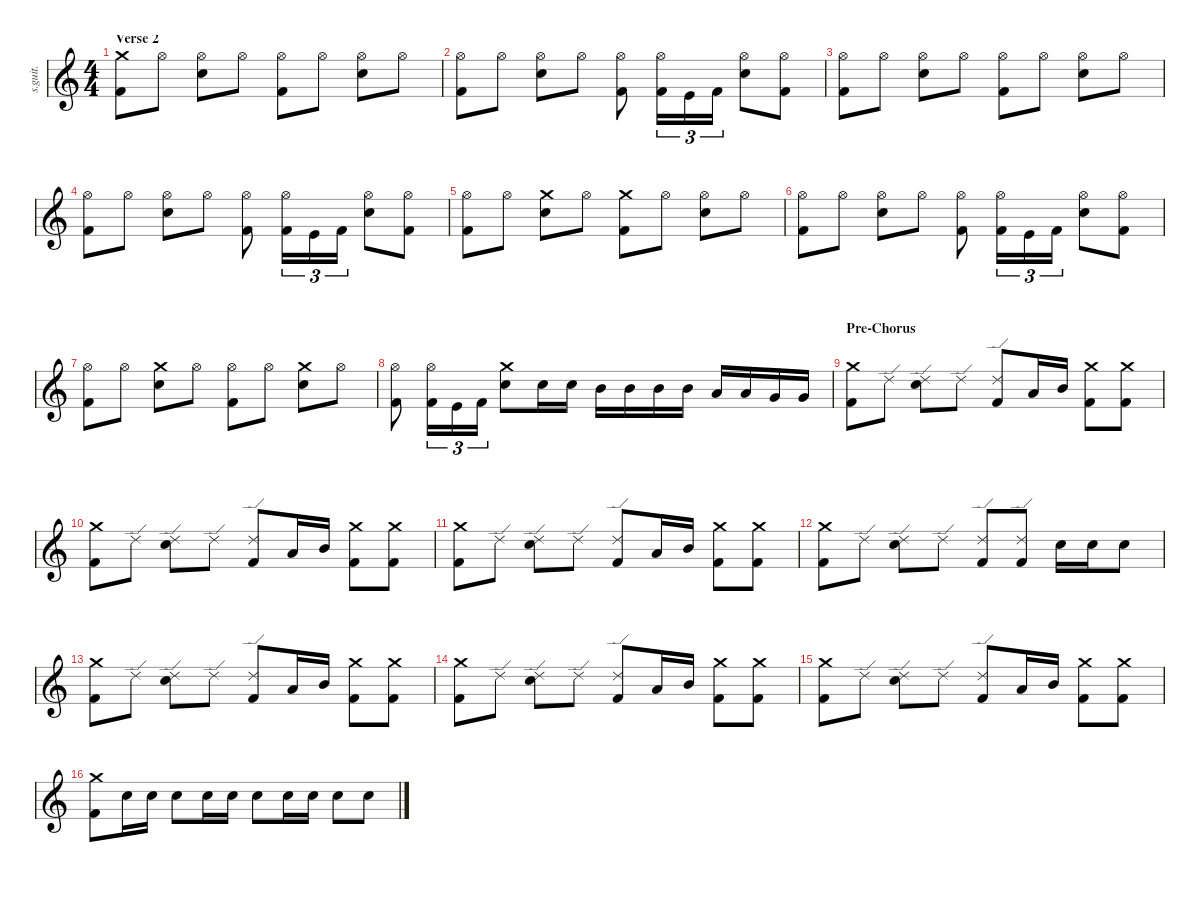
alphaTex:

\defaultSystemsLayout 4
\hideDynamics
\bracketExtendMode nobrackets
\track ("Lars Ulrich - Drums" "s.guit.") {instrument percussion}
\staff {score}
\articulation defaults
\ts (4 4)
\section ("" "Verse 2")
\tempo (140 hide)
\clef g2
\ks c
("Crash medium (hit)" "Kick (hit) 2").8{lyrics (0 "") lyrics (1 "") lyrics (2 "") lyrics (3 "") lyrics (4 "") dy f} "Hi-Hat (open)".8{lyrics (0 "") lyrics (1 "") lyrics (2 "") lyrics (3 "") lyrics (4 "")} ("Hi-Hat (open)" "Snare (hit) 2").8{lyrics (0 "") lyrics (1 "") lyrics (2 "") lyrics (3 "") lyrics (4 "")} "Hi-Hat (open)".8{lyrics (0 "") lyrics (1 "") lyrics (2 "") lyrics (3 "") lyrics (4 "")} ("Hi-Hat (open)" "Kick (hit) 2").8{lyrics (0 "") lyrics (1 "") lyrics (2 "") lyrics (3 "") lyrics (4 "")} "Hi-Hat (open)".8{lyrics (0 "") lyrics (1 "") lyrics (2 "") lyrics (3 "") lyrics (4 "")} ("Hi-Hat (open)" "Snare (hit) 2").8{lyrics (0 "") lyrics (1 "") lyrics (2 "") lyrics (3 "") lyrics (4 "")} "Hi-Hat (open)".8{lyrics (0 "") lyrics (1 "") lyrics (2 "") lyrics (3 "") lyrics (4 "")} |
("Hi-Hat (open)" "Kick (hit) 2").8{lyrics (0 "") lyrics (1 "") lyrics (2 "") lyrics (3 "") lyrics (4 "")} "Hi-Hat (open)".8{lyrics (0 "") lyrics (1 "") lyrics (2 "") lyrics (3 "") lyrics (4 "")} ("Hi-Hat (open)" "Snare (hit) 2").8{lyrics (0 "") lyrics (1 "") lyrics (2 "") lyrics (3 "") lyrics (4 "")} "Hi-Hat (open)".8{lyrics (0 "") lyrics (1 "") lyrics (2 "") lyrics (3 "") lyrics (4 "")} ("Hi-Hat (open)" "Kick (hit) 2").8{lyrics (0 "") lyrics (1 "") lyrics (2 "") lyrics (3 "") lyrics (4 "")} ("Hi-Hat (open)" "Kick (hit) 2").16{tu (3 2) lyrics (0 "") lyrics (1 "") lyrics (2 "") lyrics (3 "") lyrics (4 "")} "Kick (hit)".16{tu (3 2) lyrics (0 "") lyrics (1 "") lyrics (2 "") lyrics (3 "") lyrics (4 "")} "Kick (hit) 2".16{tu (3 2) lyrics (0 "") lyrics (1 "") lyrics (2 "") lyrics (3 "") lyrics (4 "")} ("Hi-Hat (open)" "Snare (hit) 2").8{lyrics (0 "") lyrics (1 "") lyrics (2 "") lyrics (3 "") lyrics (4 "")} ("Hi-Hat (open)" "Kick (hit) 2").8{lyrics (0 "") lyrics (1 "") lyrics (2 "") lyrics (3 "") lyrics (4 "")} |
("Hi-Hat (open)" "Kick (hit) 2").8{lyrics (0 "") lyrics (1 "") lyrics (2 "") lyrics (3 "") lyrics (4 "")} "Hi-Hat (open)".8{lyrics (0 "") lyrics (1 "") lyrics (2 "") lyrics (3 "") lyrics (4 "")} ("Hi-Hat (open)" "Snare (hit) 2").8{lyrics (0 "") lyrics (1 "") lyrics (2 "") lyrics (3 "") lyrics (4 "")} "Hi-Hat (open)".8{lyrics (0 "") lyrics (1 "") lyrics (2 "") lyrics (3 "") lyrics (4 "")} ("Hi-Hat (open)" "Kick (hit) 2").8{lyrics (0 "") lyrics (1 "") lyrics (2 "") lyrics (3 "") lyrics (4 "")} "Hi-Hat (open)".8{lyrics (0 "") lyrics (1 "") lyrics (2 "") lyrics (3 "") lyrics (4 "")} ("Hi-Hat (open)" "Snare (hit) 2").8{lyrics (0 "") lyrics (1 "") lyrics (2 "") lyrics (3 "") lyrics (4 "")} "Hi-Hat (open)".8{lyrics (0 "") lyrics (1 "") lyrics (2 "") lyrics (3 "") lyrics (4 "")} |
("Hi-Hat (open)" "Kick (hit) 2").8{lyrics (0 "") lyrics (1 "") lyrics (2 "") lyrics (3 "") lyrics (4 "")} "Hi-Hat (open)".8{lyrics (0 "") lyrics (1 "") lyrics (2 "") lyrics (3 "") lyrics (4 "")} ("Hi-Hat (open)" "Snare (hit) 2").8{lyrics (0 "") lyrics (1 "") lyrics (2 "") lyrics (3 "") lyrics (4 "")} "Hi-Hat (open)".8{lyrics (0 "") lyrics (1 "") lyrics (2 "") lyrics (3 "") lyrics (4 "")} ("Hi-Hat (open)" "Kick (hit) 2").8{lyrics (0 "") lyrics (1 "") lyrics (2 "") lyrics (3 "") lyrics (4 "")} ("Hi-Hat (open)" "Kick (hit) 2").16{tu (3 2) lyrics (0 "") lyrics (1 "") lyrics (2 "") lyrics (3 "") lyrics (4 "")} "Kick (hit)".16{tu (3 2) lyrics (0 "") lyrics (1 "") lyrics (2 "") lyrics (3 "") lyrics (4 "")} "Kick (hit) 2".16{tu (3 2) lyrics (0 "") lyrics (1 "") lyrics (2 "") lyrics (3 "") lyrics (4 "")} ("Hi-Hat (open)" "Snare (hit) 2").8{lyrics (0 "") lyrics (1 "") lyrics (2 "") lyrics (3 "") lyrics (4 "")} ("Hi-Hat (open)" "Kick (hit) 2").8{lyrics (0 "") lyrics (1 "") lyrics (2 "") lyrics (3 "") lyrics (4 "")} |
("Hi-Hat (open)" "Kick (hit) 2").8{lyrics (0 "") lyrics (1 "") lyrics (2 "") lyrics (3 "") lyrics (4 "")} "Hi-Hat (open)".8{lyrics (0 "") lyrics (1 "") lyrics (2 "") lyrics (3 "") lyrics (4 "")} ("Crash medium (hit)" "Snare (hit) 2").8{lyrics (0 "") lyrics (1 "") lyrics (2 "") lyrics (3 "") lyrics (4 "")} "Hi-Hat (open)".8{lyrics (0 "") lyrics (1 "") lyrics (2 "") lyrics (3 "") lyrics (4 "")} ("Crash medium (hit)" "Kick (hit) 2").8{lyrics (0 "") lyrics (1 "") lyrics (2 "") lyrics (3 "") lyrics (4 "")} "Hi-Hat (open)".8{lyrics (0 "") lyrics (1 "") lyrics (2 "") lyrics (3 "") lyrics (4 "")} ("Hi-Hat (open)" "Snare (hit) 2").8{lyrics (0 "") lyrics (1 "") lyrics (2 "") lyrics (3 "") lyrics (4 "")} "Hi-Hat (open)".8{lyrics (0 "") lyrics (1 "") lyrics (2 "") lyrics (3 "") lyrics (4 "")} |
("Hi-Hat (open)" "Kick (hit) 2").8{lyrics (0 "") lyrics (1 "") lyrics (2 "") lyrics (3 "") lyrics (4 "")} "Hi-Hat (open)".8{lyrics (0 "") lyrics (1 "") lyrics (2 "") lyrics (3 "") lyrics (4 "")} ("Hi-Hat (open)" "Snare (hit) 2").8{lyrics (0 "") lyrics (1 "") lyrics (2 "") lyrics (3 "") lyrics (4 "")} "Hi-Hat (open)".8{lyrics (0 "") lyrics (1 "") lyrics (2 "") lyrics (3 "") lyrics (4 "")} ("Hi-Hat (open)" "Kick (hit) 2").8{lyrics (0 "") lyrics (1 "") lyrics (2 "") lyrics (3 "") lyrics (4 "")} ("Hi-Hat (open)" "Kick (hit) 2").16{tu (3 2) lyrics (0 "") lyrics (1 "") lyrics (2 "") lyrics (3 "") lyrics (4 "")} "Kick (hit)".16{tu (3 2) lyrics (0 "") lyrics (1 "") lyrics (2 "") lyrics (3 "") lyrics (4 "")} "Kick (hit) 2".16{tu (3 2) lyrics (0 "") lyrics (1 "") lyrics (2 "") lyrics (3 "") lyrics (4 "")} ("Hi-Hat (open)" "Snare (hit) 2").8{lyrics (0 "") lyrics (1 "") lyrics (2 "") lyrics (3 "") lyrics (4 "")} ("Hi-Hat (open)" "Kick (hit) 2").8{lyrics (0 "") lyrics (1 "") lyrics (2 "") lyrics (3 "") lyrics (4 "")} |
("Hi-Hat (open)" "Kick (hit) 2").8{lyrics (0 "") lyrics (1 "") lyrics (2 "") lyrics (3 "") lyrics (4 "")} "Hi-Hat (open)".8{lyrics (0 "") lyrics (1 "") lyrics (2 "") lyrics (3 "") lyrics (4 "")} ("Crash medium (hit)" "Snare (hit) 2").8{lyrics (0 "") lyrics (1 "") lyrics (2 "") lyrics (3 "") lyrics (4 "")} "Hi-Hat (open)".8{lyrics (0 "") lyrics (1 "") lyrics (2 "") lyrics (3 "") lyrics (4 "")} ("Hi-Hat (open)" "Kick (hit) 2").8{lyrics (0 "") lyrics (1 "") lyrics (2 "") lyrics (3 "") lyrics (4 "")} "Hi-Hat (open)".8{lyrics (0 "") lyrics (1 "") lyrics (2 "") lyrics (3 "") lyrics (4 "")} ("Crash medium (hit)" "Snare (hit) 2").8{lyrics (0 "") lyrics (1 "") lyrics (2 "") lyrics (3 "") lyrics (4 "")} "Hi-Hat (open)".8{lyrics (0 "") lyrics (1 "") lyrics (2 "") lyrics (3 "") lyrics (4 "")} |
("Hi-Hat (open)" "Kick (hit) 2").8{lyrics (0 "") lyrics (1 "") lyrics (2 "") lyrics (3 "") lyrics (4 "")} ("Hi-Hat (open)" "Kick (hit) 2").16{tu (3 2) lyrics (0 "") lyrics (1 "") lyrics (2 "") lyrics (3 "") lyrics (4 "")} "Kick (hit)".16{tu (3 2) lyrics (0 "") lyrics (1 "") lyrics (2 "") lyrics (3 "") lyrics (4 "")} "Kick (hit) 2".16{tu (3 2) lyrics (0 "") lyrics (1 "") lyrics (2 "") lyrics (3 "") lyrics (4 "")} ("Crash medium (hit)" "Snare (hit) 2").8{lyrics (0 "") lyrics (1 "") lyrics (2 "") lyrics (3 "") lyrics (4 "")} "Snare (hit) 2".16{lyrics (0 "") lyrics (1 "") lyrics (2 "") lyrics (3 "") lyrics (4 "")} "Snare (hit) 2".16{lyrics (0 "") lyrics (1 "") lyrics (2 "") lyrics (3 "") lyrics (4 "")} "Mid Tom (hit)".16{lyrics (0 "") lyrics (1 "") lyrics (2 "") lyrics (3 "") lyrics (4 "") dy fff} "Mid Tom (hit)".16{lyrics (0 "") lyrics (1 "") lyrics (2 "") lyrics (3 "") lyrics (4 "")} "Mid Tom (hit)".16{lyrics (0 "") lyrics (1 "") lyrics (2 "") lyrics (3 "") lyrics (4 "")} "Mid Tom (hit)".16{lyrics (0 "") lyrics (1 "") lyrics (2 "") lyrics (3 "") lyrics (4 "")} "Low Tom (hit)".16{lyrics (0 "") lyrics (1 "") lyrics (2 "") lyrics (3 "") lyrics (4 "")} "Low Tom (hit)".16{lyrics (0 "") lyrics (1 "") lyrics (2 "") lyrics (3 "") lyrics (4 "")} "Very Low Tom (hit)".16{lyrics (0 "") lyrics (1 "") lyrics (2 "") lyrics (3 "") lyrics (4 "") dy ff} "Very Low Tom (hit)".16{lyrics (0 "") lyrics (1 "") lyrics (2 "") lyrics (3 "") lyrics (4 "")} |
\section ("" "Pre-Chorus")
("Crash medium (hit)" "Kick (hit) 2").8{lyrics (0 "") lyrics (1 "") lyrics (2 "") lyrics (3 "") lyrics (4 "") dy f} "Ride (edge) 2".8{lyrics (0 "") lyrics (1 "") lyrics (2 "") lyrics (3 "") lyrics (4 "")} ("Ride (edge) 2" "Snare (hit) 2").8{lyrics (0 "") lyrics (1 "") lyrics (2 "") lyrics (3 "") lyrics (4 "")} "Ride (edge) 2".8{lyrics (0 "") lyrics (1 "") lyrics (2 "") lyrics (3 "") lyrics (4 "")} ("Ride (edge) 2" "Kick (hit) 2").8{lyrics (0 "") lyrics (1 "") lyrics (2 "") lyrics (3 "") lyrics (4 "")} "Low Tom (hit)".16{lyrics (0 "") lyrics (1 "") lyrics (2 "") lyrics (3 "") lyrics (4 "") dy fff} "Mid Tom (hit)".16{lyrics (0 "") lyrics (1 "") lyrics (2 "") lyrics (3 "") lyrics (4 "")} ("Crash medium (hit)" "Kick (hit) 2").8{lyrics (0 "") lyrics (1 "") lyrics (2 "") lyrics (3 "") lyrics (4 "") dy f} ("Crash medium (hit)" "Kick (hit) 2").8{lyrics (0 "") lyrics (1 "") lyrics (2 "") lyrics (3 "") lyrics (4 "")} |
("Crash medium (hit)" "Kick (hit) 2").8{lyrics (0 "") lyrics (1 "") lyrics (2 "") lyrics (3 "") lyrics (4 "")} "Ride (edge) 2".8{lyrics (0 "") lyrics (1 "") lyrics (2 "") lyrics (3 "") lyrics (4 "")} ("Ride (edge) 2" "Snare (hit) 2").8{lyrics (0 "") lyrics (1 "") lyrics (2 "") lyrics (3 "") lyrics (4 "")} "Ride (edge) 2".8{lyrics (0 "") lyrics (1 "") lyrics (2 "") lyrics (3 "") lyrics (4 "")} ("Ride (edge) 2" "Kick (hit) 2").8{lyrics (0 "") lyrics (1 "") lyrics (2 "") lyrics (3 "") lyrics (4 "")} "Low Tom (hit)".16{lyrics (0 "") lyrics (1 "") lyrics (2 "") lyrics (3 "") lyrics (4 "") dy fff} "Mid Tom (hit)".16{lyrics (0 "") lyrics (1 "") lyrics (2 "") lyrics (3 "") lyrics (4 "")} ("Crash medium (hit)" "Kick (hit) 2").8{lyrics (0 "") lyrics (1 "") lyrics (2 "") lyrics (3 "") lyrics (4 "") dy f} ("Crash medium (hit)" "Kick (hit) 2").8{lyrics (0 "") lyrics (1 "") lyrics (2 "") lyrics (3 "") lyrics (4 "")} |
("Crash medium (hit)" "Kick (hit) 2").8{lyrics (0 "") lyrics (1 "") lyrics (2 "") lyrics (3 "") lyrics (4 "")} "Ride (edge) 2".8{lyrics (0 "") lyrics (1 "") lyrics (2 "") lyrics (3 "") lyrics (4 "")} ("Ride (edge) 2" "Snare (hit) 2").8{lyrics (0 "") lyrics (1 "") lyrics (2 "") lyrics (3 "") lyrics (4 "")} "Ride (edge) 2".8{lyrics (0 "") lyrics (1 "") lyrics (2 "") lyrics (3 "") lyrics (4 "")} ("Ride (edge) 2" "Kick (hit) 2").8{lyrics (0 "") lyrics (1 "") lyrics (2 "") lyrics (3 "") lyrics (4 "")} "Low Tom (hit)".16{lyrics (0 "") lyrics (1 "") lyrics (2 "") lyrics (3 "") lyrics (4 "") dy fff} "Mid Tom (hit)".16{lyrics (0 "") lyrics (1 "") lyrics (2 "") lyrics (3 "") lyrics (4 "")} ("Crash medium (hit)" "Kick (hit) 2").8{lyrics (0 "") lyrics (1 "") lyrics (2 "") lyrics (3 "") lyrics (4 "") dy f} ("Crash medium (hit)" "Kick (hit) 2").8{lyrics (0 "") lyrics (1 "") lyrics (2 "") lyrics (3 "") lyrics (4 "")} |
("Crash medium (hit)" "Kick (hit) 2").8{lyrics (0 "") lyrics (1 "") lyrics (2 "") lyrics (3 "") lyrics (4 "")} "Ride (edge) 2".8{lyrics (0 "") lyrics (1 "") lyrics (2 "") lyrics (3 "") lyrics (4 "")} ("Ride (edge) 2" "Snare (hit) 2").8{lyrics (0 "") lyrics (1 "") lyrics (2 "") lyrics (3 "") lyrics (4 "")} "Ride (edge) 2".8{lyrics (0 "") lyrics (1 "") lyrics (2 "") lyrics (3 "") lyrics (4 "")} ("Ride (edge) 2" "Kick (hit) 2").8{lyrics (0 "") lyrics (1 "") lyrics (2 "") lyrics (3 "") lyrics (4 "")} ("Ride (edge) 2" "Kick (hit) 2").8{lyrics (0 "") lyrics (1 "") lyrics (2 "") lyrics (3 "") lyrics (4 "")} "Snare (hit) 2".16{lyrics (0 "") lyrics (1 "") lyrics (2 "") lyrics (3 "") lyrics (4 "") dy ff} "Snare (hit) 2".16{lyrics (0 "") lyrics (1 "") lyrics (2 "") lyrics (3 "") lyrics (4 "")} "Snare (hit) 2".8{lyrics (0 "") lyrics (1 "") lyrics (2 "") lyrics (3 "") lyrics (4 "")} |
("Crash medium (hit)" "Kick (hit) 2").8{lyrics (0 "") lyrics (1 "") lyrics (2 "") lyrics (3 "") lyrics (4 "") dy f} "Ride (edge) 2".8{lyrics (0 "") lyrics (1 "") lyrics (2 "") lyrics (3 "") lyrics (4 "")} ("Ride (edge) 2" "Snare (hit) 2").8{lyrics (0 "") lyrics (1 "") lyrics (2 "") lyrics (3 "") lyrics (4 "")} "Ride (edge) 2".8{lyrics (0 "") lyrics (1 "") lyrics (2 "") lyrics (3 "") lyrics (4 "")} ("Ride (edge) 2" "Kick (hit) 2").8{lyrics (0 "") lyrics (1 "") lyrics (2 "") lyrics (3 "") lyrics (4 "")} "Low Tom (hit)".16{lyrics (0 "") lyrics (1 "") lyrics (2 "") lyrics (3 "") lyrics (4 "") dy fff} "Mid Tom (hit)".16{lyrics (0 "") lyrics (1 "") lyrics (2 "") lyrics (3 "") lyrics (4 "")} ("Crash medium (hit)" "Kick (hit) 2").8{lyrics (0 "") lyrics (1 "") lyrics (2 "") lyrics (3 "") lyrics (4 "") dy f} ("Crash medium (hit)" "Kick (hit) 2").8{lyrics (0 "") lyrics (1 "") lyrics (2 "") lyrics (3 "") lyrics (4 "")} |
("Crash medium (hit)" "Kick (hit) 2").8{lyrics (0 "") lyrics (1 "") lyrics (2 "") lyrics (3 "") lyrics (4 "")} "Ride (edge) 2".8{lyrics (0 "") lyrics (1 "") lyrics (2 "") lyrics (3 "") lyrics (4 "")} ("Ride (edge) 2" "Snare (hit) 2").8{lyrics (0 "") lyrics (1 "") lyrics (2 "") lyrics (3 "") lyrics (4 "")} "Ride (edge) 2".8{lyrics (0 "") lyrics (1 "") lyrics (2 "") lyrics (3 "") lyrics (4 "")} ("Ride (edge) 2" "Kick (hit) 2").8{lyrics (0 "") lyrics (1 "") lyrics (2 "") lyrics (3 "") lyrics (4 "")} "Low Tom (hit)".16{lyrics (0 "") lyrics (1 "") lyrics (2 "") lyrics (3 "") lyrics (4 "") dy fff} "Mid Tom (hit)".16{lyrics (0 "") lyrics (1 "") lyrics (2 "") lyrics (3 "") lyrics (4 "")} ("Crash medium (hit)" "Kick (hit) 2").8{lyrics (0 "") lyrics (1 "") lyrics (2 "") lyrics (3 "") lyrics (4 "") dy f} ("Crash medium (hit)" "Kick (hit) 2").8{lyrics (0 "") lyrics (1 "") lyrics (2 "") lyrics (3 "") lyrics (4 "")} |
("Crash medium (hit)" "Kick (hit) 2").8{lyrics (0 "") lyrics (1 "") lyrics (2 "") lyrics (3 "") lyrics (4 "")} "Ride (edge) 2".8{lyrics (0 "") lyrics (1 "") lyrics (2 "") lyrics (3 "") lyrics (4 "")} ("Ride (edge) 2" "Snare (hit) 2").8{lyrics (0 "") lyrics (1 "") lyrics (2 "") lyrics (3 "") lyrics (4 "")} "Ride (edge) 2".8{lyrics (0 "") lyrics (1 "") lyrics (2 "") lyrics (3 "") lyrics (4 "")} ("Ride (edge) 2" "Kick (hit) 2").8{lyrics (0 "") lyrics (1 "") lyrics (2 "") lyrics (3 "") lyrics (4 "")} "Low Tom (hit)".16{lyrics (0 "") lyrics (1 "") lyrics (2 "") lyrics (3 "") lyrics (4 "") dy fff} "Mid Tom (hit)".16{lyrics (0 "") lyrics (1 "") lyrics (2 "") lyrics (3 "") lyrics (4 "")} ("Crash medium (hit)" "Kick (hit) 2").8{lyrics (0 "") lyrics (1 "") lyrics (2 "") lyrics (3 "") lyrics (4 "") dy f} ("Crash medium (hit)" "Kick (hit) 2").8{lyrics (0 "") lyrics (1 "") lyrics (2 "") lyrics (3 "") lyrics (4 "")} |
("Crash medium (hit)" "Kick (hit) 2").8{lyrics (0 "") lyrics (1 "") lyrics (2 "") lyrics (3 "") lyrics (4 "")} "Snare (hit) 2".16{lyrics (0 "") lyrics (1 "") lyrics (2 "") lyrics (3 "") lyrics (4 "") dy mf} "Snare (hit) 2".16{lyrics (0 "") lyrics (1 "") lyrics (2 "") lyrics (3 "") lyrics (4 "")} "Snare (hit) 2".8{lyrics (0 "") lyrics (1 "") lyrics (2 "") lyrics (3 "") lyrics (4 "") dy ff} "Snare (hit) 2".16{lyrics (0 "") lyrics (1 "") lyrics (2 "") lyrics (3 "") lyrics (4 "") dy mf} "Snare (hit) 2".16{lyrics (0 "") lyrics (1 "") lyrics (2 "") lyrics (3 "") lyrics (4 "")} "Snare (hit) 2".8{lyrics (0 "") lyrics (1 "") lyrics (2 "") lyrics (3 "") lyrics (4 "") dy ff} "Snare (hit) 2".16{lyrics (0 "") lyrics (1 "") lyrics (2 "") lyrics (3 "") lyrics (4 "") dy mf} "Snare (hit) 2".16{lyrics (0 "") lyrics (1 "") lyrics (2 "") lyrics (3 "") lyrics (4 "")} "Snare (hit) 2".8{lyrics (0 "") lyrics (1 "") lyrics (2 "") lyrics (3 "") lyrics (4 "") dy ff} "Snare (hit) 2".8{lyrics (0 "") lyrics (1 "") lyrics (2 "") lyrics (3 "") lyrics (4 "")}
